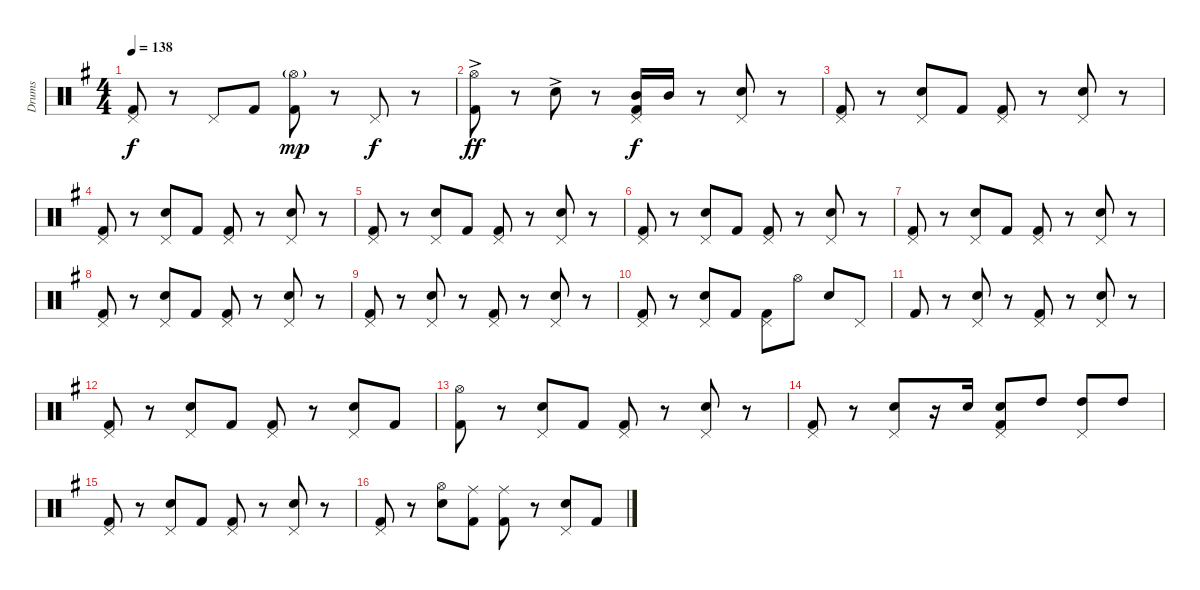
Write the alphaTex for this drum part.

\track ("Drums" "Drums") {instrument percussion}
\staff {score}
\articulation defaults
\ts (4 4)
\tempo 138
\clef neutral
\ks g
("Pedal Hi-Hat (hit)" "Kick (hit) 2").8{dy f} r.8 "Pedal Hi-Hat (hit)".8 "Kick (hit) 2".8 ("Hi-Hat (open)"{g} "Kick (hit) 2").8{dy mp} r.8 "Pedal Hi-Hat (hit)".8{dy f} r.8 |
("Hi-Hat (open)"{ac} "Kick (hit) 2").8{dy ff} r.8 "Electric Snare (hit)"{ac}.8 r.8 ("Pedal Hi-Hat (hit)" "Mid Tom (hit)" "Kick (hit) 2").16{dy f} "Mid Tom (hit)".16 r.8 ("Pedal Hi-Hat (hit)" "Electric Snare (hit)").8 r.8 |
("Pedal Hi-Hat (hit)" "Kick (hit) 2").8 r.8 ("Pedal Hi-Hat (hit)" "Electric Snare (hit)").8 "Kick (hit) 2".8 ("Pedal Hi-Hat (hit)" "Kick (hit) 2").8 r.8 ("Pedal Hi-Hat (hit)" "Electric Snare (hit)").8 r.8 |
("Pedal Hi-Hat (hit)" "Kick (hit) 2").8 r.8 ("Pedal Hi-Hat (hit)" "Electric Snare (hit)").8 "Kick (hit) 2".8 ("Pedal Hi-Hat (hit)" "Kick (hit) 2").8 r.8 ("Pedal Hi-Hat (hit)" "Electric Snare (hit)").8 r.8 |
("Pedal Hi-Hat (hit)" "Kick (hit) 2").8 r.8 ("Pedal Hi-Hat (hit)" "Electric Snare (hit)").8 "Kick (hit) 2".8 ("Pedal Hi-Hat (hit)" "Kick (hit) 2").8 r.8 ("Pedal Hi-Hat (hit)" "Electric Snare (hit)").8 r.8 |
("Pedal Hi-Hat (hit)" "Kick (hit) 2").8 r.8 ("Pedal Hi-Hat (hit)" "Electric Snare (hit)").8 "Kick (hit) 2".8 ("Pedal Hi-Hat (hit)" "Kick (hit) 2").8 r.8 ("Pedal Hi-Hat (hit)" "Electric Snare (hit)").8 r.8 |
("Pedal Hi-Hat (hit)" "Kick (hit) 2").8 r.8 ("Pedal Hi-Hat (hit)" "Electric Snare (hit)").8 "Kick (hit) 2".8 ("Pedal Hi-Hat (hit)" "Kick (hit) 2").8 r.8 ("Pedal Hi-Hat (hit)" "Electric Snare (hit)").8 r.8 |
("Pedal Hi-Hat (hit)" "Kick (hit) 2").8 r.8 ("Pedal Hi-Hat (hit)" "Electric Snare (hit)").8 "Kick (hit) 2".8 ("Pedal Hi-Hat (hit)" "Kick (hit) 2").8 r.8 ("Pedal Hi-Hat (hit)" "Electric Snare (hit)").8 r.8 |
("Pedal Hi-Hat (hit)" "Kick (hit) 2").8 r.8 ("Pedal Hi-Hat (hit)" "Electric Snare (hit)").8 r.8 ("Pedal Hi-Hat (hit)" "Kick (hit) 2").8 r.8 ("Pedal Hi-Hat (hit)" "Electric Snare (hit)").8 r.8 |
("Pedal Hi-Hat (hit)" "Kick (hit) 2").8 r.8 ("Pedal Hi-Hat (hit)" "Electric Snare (hit)").8 "Kick (hit) 2".8 ("Pedal Hi-Hat (hit)" "Kick (hit) 2").8 "Hi-Hat (open)".8 "Electric Snare (hit)".8 "Pedal Hi-Hat (hit)".8 |
"Kick (hit) 2".8 r.8 ("Pedal Hi-Hat (hit)" "Electric Snare (hit)").8 r.8 ("Pedal Hi-Hat (hit)" "Kick (hit) 2").8 r.8 ("Pedal Hi-Hat (hit)" "Electric Snare (hit)").8 r.8 |
("Pedal Hi-Hat (hit)" "Kick (hit) 2").8 r.8 ("Pedal Hi-Hat (hit)" "Electric Snare (hit)").8 "Kick (hit) 2".8 ("Pedal Hi-Hat (hit)" "Kick (hit) 2").8 r.8 ("Pedal Hi-Hat (hit)" "Electric Snare (hit)").8 "Kick (hit) 2".8 |
("Hi-Hat (open)" "Kick (hit) 2").8 r.8 ("Pedal Hi-Hat (hit)" "Electric Snare (hit)").8 "Kick (hit) 2".8 ("Pedal Hi-Hat (hit)" "Kick (hit) 2").8 r.8 ("Pedal Hi-Hat (hit)" "Electric Snare (hit)").8 r.8 |
("Pedal Hi-Hat (hit)" "Kick (hit) 2").8 r.8 ("Pedal Hi-Hat (hit)" "Electric Snare (hit)").8 r.16 "Electric Snare (hit)".16 ("Pedal Hi-Hat (hit)" "Electric Snare (hit)" "Kick (hit) 2").8 "High Tom (hit)".8 ("Pedal Hi-Hat (hit)" "High Tom (hit)").8 "High Tom (hit)".8 |
("Pedal Hi-Hat (hit)" "Kick (hit) 2").8 r.8 ("Pedal Hi-Hat (hit)" "Electric Snare (hit)").8 "Kick (hit) 2".8 ("Pedal Hi-Hat (hit)" "Kick (hit) 2").8 r.8 ("Pedal Hi-Hat (hit)" "Electric Snare (hit)").8 r.8 |
("Pedal Hi-Hat (hit)" "Kick (hit) 2").8 r.8 ("Hi-Hat (open)" "Electric Snare (hit)").8 ("Ride (middle)" "Kick (hit) 2").8 ("Ride (middle)" "Kick (hit) 2").8 r.8 ("Pedal Hi-Hat (hit)" "Electric Snare (hit)").8 "Kick (hit) 2".8
